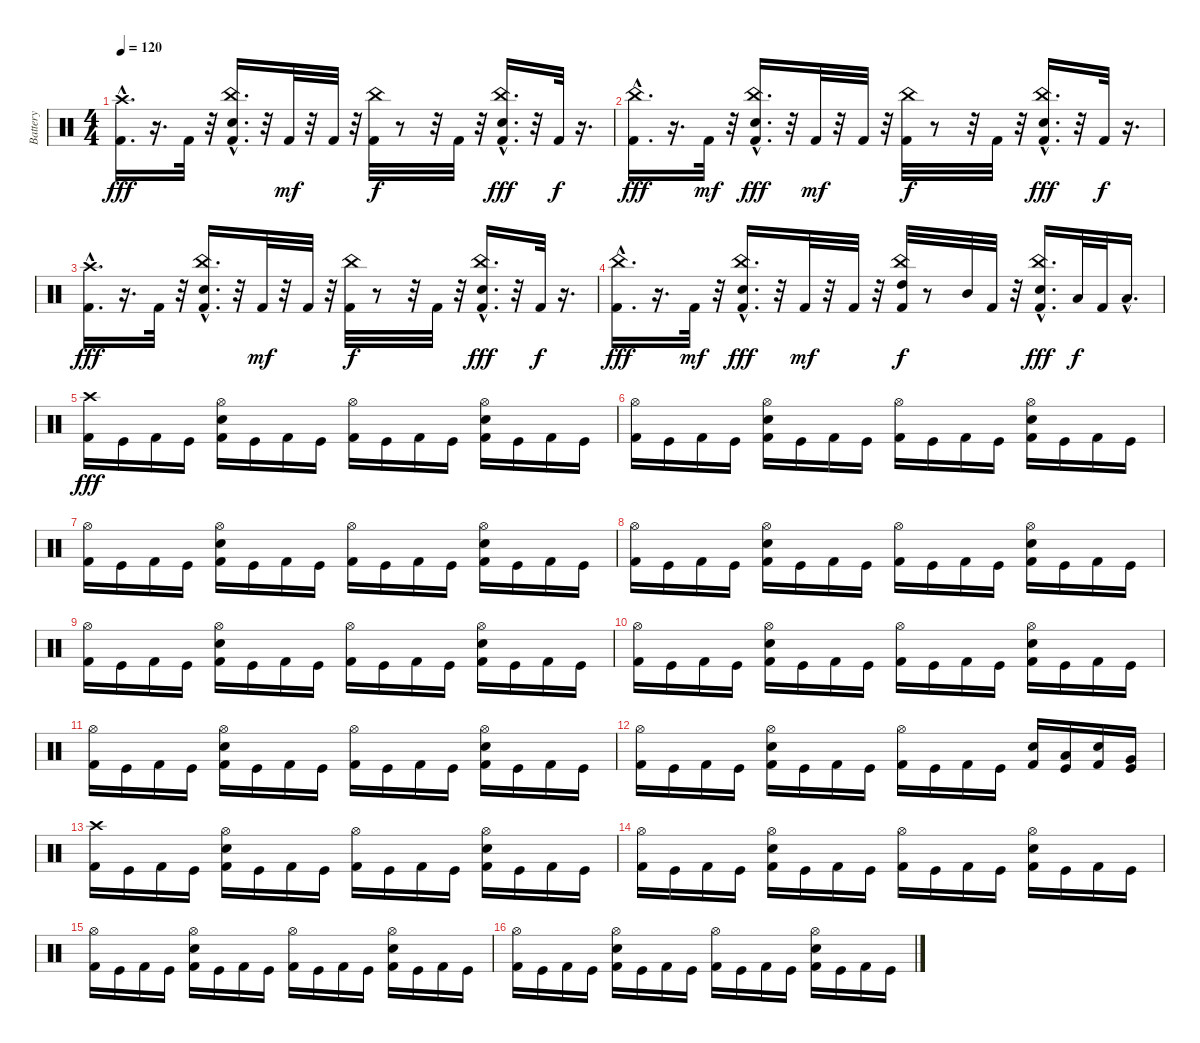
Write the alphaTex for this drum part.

\track ("Battery" "Battery") {instrument percussion}
\staff {score}
\articulation defaults
\ts (4 4)
\tempo 120
\clef neutral
\ks c
("Crash high (hit)" "Kick (hit) 2"{hac}).16{d dy fff} r.16{d} "Kick (hit) 2".32 r.32 ("China (hit)" "Electric Snare (hit)"{hac} "Kick (hit) 2").16{d} r.32 "Kick (hit) 2".32{dy mf} r.32 "Kick (hit) 2".32 r.32 ("China (hit)" "Kick (hit) 2").32{dy f} r.8 r.32 "Kick (hit) 2".32 r.32 ("Electric Snare (hit)"{hac} "Kick (hit) 2" "China (hit)").16{d dy fff} r.32 "Kick (hit) 2".32{dy f} r.16{d} |
("Kick (hit) 2"{hac} "China (hit)").16{d dy fff} r.16{d} "Kick (hit) 2".32{dy mf} r.32 ("China (hit)" "Kick (hit) 2" "Electric Snare (hit)"{hac}).16{d dy fff} r.32 "Kick (hit) 2".32{dy mf} r.32 "Kick (hit) 2".32 r.32 ("China (hit)" "Kick (hit) 2").32{dy f} r.8 r.32 "Kick (hit) 2".32 r.32 ("Kick (hit) 2" "China (hit)" "Electric Snare (hit)"{hac}).16{d dy fff} r.32 "Kick (hit) 2".32{dy f} r.16{d} |
("Kick (hit) 2"{hac} "Crash high (hit)").16{d dy fff} r.16{d} "Kick (hit) 2".32 r.32 ("Kick (hit) 2" "China (hit)" "Electric Snare (hit)"{hac}).16{d} r.32 "Kick (hit) 2".32{dy mf} r.32 "Kick (hit) 2".32 r.32 ("Kick (hit) 2" "China (hit)").32{dy f} r.8 r.32 "Kick (hit) 2".32 r.32 ("China (hit)" "Electric Snare (hit)"{hac} "Kick (hit) 2").16{d dy fff} r.32 "Kick (hit) 2".32{dy f} r.16{d} |
("Kick (hit) 2"{hac} "China (hit)").16{d dy fff} r.16{d} "Kick (hit) 2".32{dy mf} r.32 ("Electric Snare (hit)"{hac} "China (hit)" "Kick (hit) 2").16{d dy fff} r.32 "Kick (hit) 2".32{dy mf} r.32 "Kick (hit) 2".32 r.32 ("China (hit)" "Kick (hit) 2" "High Tom (hit)").32{dy f} r.8 "Mid Tom (hit)".32 "Kick (hit) 2".32 r.32 ("China (hit)" "Kick (hit) 2" "Electric Snare (hit)"{hac}).16{d dy fff} "Low Tom (hit)".32{dy f} "Kick (hit) 2".32 "Low Tom (hit)"{hac}.16{d} |
("Crash high (hit)" "Kick (hit) 2").16{dy fff} "Kick (hit)".16 "Kick (hit) 2".16 "Kick (hit)".16 ("Hi-Hat (open)" "Electric Snare (hit)" "Kick (hit) 2").16 "Kick (hit)".16 "Kick (hit) 2".16 "Kick (hit)".16 ("Hi-Hat (open)" "Kick (hit) 2").16 "Kick (hit)".16 "Kick (hit) 2".16 "Kick (hit)".16 ("Hi-Hat (open)" "Electric Snare (hit)" "Kick (hit) 2").16 "Kick (hit)".16 "Kick (hit) 2".16 "Kick (hit)".16 |
("Hi-Hat (open)" "Kick (hit) 2").16 "Kick (hit)".16 "Kick (hit) 2".16 "Kick (hit)".16 ("Electric Snare (hit)" "Hi-Hat (open)" "Kick (hit) 2").16 "Kick (hit)".16 "Kick (hit) 2".16 "Kick (hit)".16 ("Hi-Hat (open)" "Kick (hit) 2").16 "Kick (hit)".16 "Kick (hit) 2".16 "Kick (hit)".16 ("Electric Snare (hit)" "Hi-Hat (open)" "Kick (hit) 2").16 "Kick (hit)".16 "Kick (hit) 2".16 "Kick (hit)".16 |
("Hi-Hat (open)" "Kick (hit) 2").16 "Kick (hit)".16 "Kick (hit) 2".16 "Kick (hit)".16 ("Electric Snare (hit)" "Hi-Hat (open)" "Kick (hit) 2").16 "Kick (hit)".16 "Kick (hit) 2".16 "Kick (hit)".16 ("Hi-Hat (open)" "Kick (hit) 2").16 "Kick (hit)".16 "Kick (hit) 2".16 "Kick (hit)".16 ("Hi-Hat (open)" "Electric Snare (hit)" "Kick (hit) 2").16 "Kick (hit)".16 "Kick (hit) 2".16 "Kick (hit)".16 |
("Hi-Hat (open)" "Kick (hit) 2").16 "Kick (hit)".16 "Kick (hit) 2".16 "Kick (hit)".16 ("Hi-Hat (open)" "Electric Snare (hit)" "Kick (hit) 2").16 "Kick (hit)".16 "Kick (hit) 2".16 "Kick (hit)".16 ("Hi-Hat (open)" "Kick (hit) 2").16 "Kick (hit)".16 "Kick (hit) 2".16 "Kick (hit)".16 ("Electric Snare (hit)" "Hi-Hat (open)" "Kick (hit) 2").16 "Kick (hit)".16 "Kick (hit) 2".16 "Kick (hit)".16 |
("Hi-Hat (open)" "Kick (hit) 2").16 "Kick (hit)".16 "Kick (hit) 2".16 "Kick (hit)".16 ("Hi-Hat (open)" "Electric Snare (hit)" "Kick (hit) 2").16 "Kick (hit)".16 "Kick (hit) 2".16 "Kick (hit)".16 ("Hi-Hat (open)" "Kick (hit) 2").16 "Kick (hit)".16 "Kick (hit) 2".16 "Kick (hit)".16 ("Electric Snare (hit)" "Hi-Hat (open)" "Kick (hit) 2").16 "Kick (hit)".16 "Kick (hit) 2".16 "Kick (hit)".16 |
("Hi-Hat (open)" "Kick (hit) 2").16 "Kick (hit)".16 "Kick (hit) 2".16 "Kick (hit)".16 ("Electric Snare (hit)" "Hi-Hat (open)" "Kick (hit) 2").16 "Kick (hit)".16 "Kick (hit) 2".16 "Kick (hit)".16 ("Hi-Hat (open)" "Kick (hit) 2").16 "Kick (hit)".16 "Kick (hit) 2".16 "Kick (hit)".16 ("Electric Snare (hit)" "Hi-Hat (open)" "Kick (hit) 2").16 "Kick (hit)".16 "Kick (hit) 2".16 "Kick (hit)".16 |
("Hi-Hat (open)" "Kick (hit) 2").16 "Kick (hit)".16 "Kick (hit) 2".16 "Kick (hit)".16 ("Electric Snare (hit)" "Hi-Hat (open)" "Kick (hit) 2").16 "Kick (hit)".16 "Kick (hit) 2".16 "Kick (hit)".16 ("Hi-Hat (open)" "Kick (hit) 2").16 "Kick (hit)".16 "Kick (hit) 2".16 "Kick (hit)".16 ("Electric Snare (hit)" "Hi-Hat (open)" "Kick (hit) 2").16 "Kick (hit)".16 "Kick (hit) 2".16 "Kick (hit)".16 |
("Hi-Hat (open)" "Kick (hit) 2").16 "Kick (hit)".16 "Kick (hit) 2".16 "Kick (hit)".16 ("Hi-Hat (open)" "Electric Snare (hit)" "Kick (hit) 2").16 "Kick (hit)".16 "Kick (hit) 2".16 "Kick (hit)".16 ("Hi-Hat (open)" "Kick (hit) 2").16 "Kick (hit)".16 "Kick (hit) 2".16 "Kick (hit)".16 ("Electric Snare (hit)" "Kick (hit) 2").16 ("Low Tom (hit)" "Kick (hit)").16 ("Electric Snare (hit)" "Kick (hit) 2").16 ("Very Low Tom (hit)" "Kick (hit)").16 |
("Crash high (hit)" "Kick (hit) 2").16 "Kick (hit)".16 "Kick (hit) 2".16 "Kick (hit)".16 ("Electric Snare (hit)" "Hi-Hat (open)" "Kick (hit) 2").16 "Kick (hit)".16 "Kick (hit) 2".16 "Kick (hit)".16 ("Hi-Hat (open)" "Kick (hit) 2").16 "Kick (hit)".16 "Kick (hit) 2".16 "Kick (hit)".16 ("Hi-Hat (open)" "Electric Snare (hit)" "Kick (hit) 2").16 "Kick (hit)".16 "Kick (hit) 2".16 "Kick (hit)".16 |
("Hi-Hat (open)" "Kick (hit) 2").16 "Kick (hit)".16 "Kick (hit) 2".16 "Kick (hit)".16 ("Hi-Hat (open)" "Electric Snare (hit)" "Kick (hit) 2").16 "Kick (hit)".16 "Kick (hit) 2".16 "Kick (hit)".16 ("Hi-Hat (open)" "Kick (hit) 2").16 "Kick (hit)".16 "Kick (hit) 2".16 "Kick (hit)".16 ("Hi-Hat (open)" "Electric Snare (hit)" "Kick (hit) 2").16 "Kick (hit)".16 "Kick (hit) 2".16 "Kick (hit)".16 |
("Hi-Hat (open)" "Kick (hit) 2").16 "Kick (hit)".16 "Kick (hit) 2".16 "Kick (hit)".16 ("Hi-Hat (open)" "Electric Snare (hit)" "Kick (hit) 2").16 "Kick (hit)".16 "Kick (hit) 2".16 "Kick (hit)".16 ("Hi-Hat (open)" "Kick (hit) 2").16 "Kick (hit)".16 "Kick (hit) 2".16 "Kick (hit)".16 ("Electric Snare (hit)" "Hi-Hat (open)" "Kick (hit) 2").16 "Kick (hit)".16 "Kick (hit) 2".16 "Kick (hit)".16 |
("Hi-Hat (open)" "Kick (hit) 2").16 "Kick (hit)".16 "Kick (hit) 2".16 "Kick (hit)".16 ("Electric Snare (hit)" "Hi-Hat (open)" "Kick (hit) 2").16 "Kick (hit)".16 "Kick (hit) 2".16 "Kick (hit)".16 ("Hi-Hat (open)" "Kick (hit) 2").16 "Kick (hit)".16 "Kick (hit) 2".16 "Kick (hit)".16 ("Hi-Hat (open)" "Electric Snare (hit)" "Kick (hit) 2").16 "Kick (hit)".16 "Kick (hit) 2".16 "Kick (hit)".16
